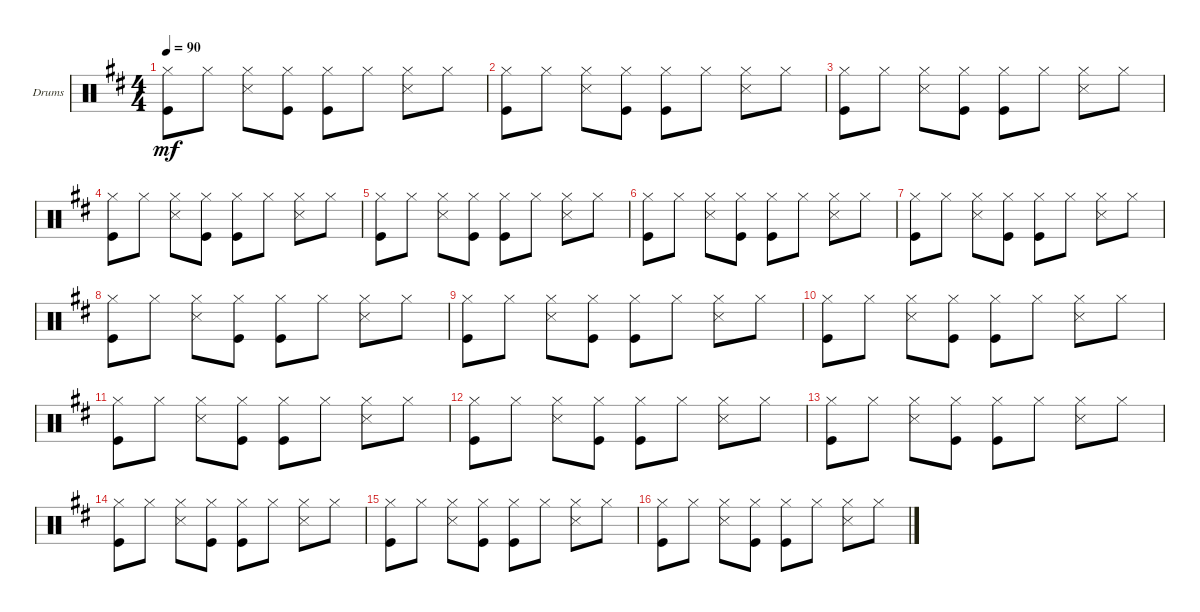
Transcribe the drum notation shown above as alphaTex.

\defaultSystemsLayout 4
\bracketExtendMode groupsimilarinstruments
\firstSystemTrackNameOrientation horizontal
\otherSystemsTrackNameOrientation horizontal
\track ("Drumkit" "Drums") {multiBarRest instrument percussion}
\staff {score}
\articulation defaults
\ts (4 4)
\tempo 90
\clef neutral
\scale
0.333333
\ks d
("Hi-Hat (closed)" "Kick (hit)").8{dy mf} "Hi-Hat (closed)".8 ("Hi-Hat (closed)" "Snare (side stick) 3").8 ("Hi-Hat (closed)" "Kick (hit)").8 ("Hi-Hat (closed)" "Kick (hit)").8 "Hi-Hat (closed)".8 ("Hi-Hat (closed)" "Snare (side stick) 3").8 "Hi-Hat (closed)".8 |
\scale
0.333333 ("Hi-Hat (closed)" "Kick (hit)").8 "Hi-Hat (closed)".8 ("Hi-Hat (closed)" "Snare (side stick) 3").8 ("Hi-Hat (closed)" "Kick (hit)").8 ("Hi-Hat (closed)" "Kick (hit)").8 "Hi-Hat (closed)".8 ("Hi-Hat (closed)" "Snare (side stick) 3").8 "Hi-Hat (closed)".8 |
\scale
0.333333 ("Hi-Hat (closed)" "Kick (hit)").8 "Hi-Hat (closed)".8 ("Hi-Hat (closed)" "Snare (side stick) 3").8 ("Hi-Hat (closed)" "Kick (hit)").8 ("Hi-Hat (closed)" "Kick (hit)").8 "Hi-Hat (closed)".8 ("Hi-Hat (closed)" "Snare (side stick) 3").8 "Hi-Hat (closed)".8 |
\scale
0.333333 ("Hi-Hat (closed)" "Kick (hit)").8 "Hi-Hat (closed)".8 ("Hi-Hat (closed)" "Snare (side stick) 3").8 ("Hi-Hat (closed)" "Kick (hit)").8 ("Hi-Hat (closed)" "Kick (hit)").8 "Hi-Hat (closed)".8 ("Hi-Hat (closed)" "Snare (side stick) 3").8 "Hi-Hat (closed)".8 |
\scale
0.333333 ("Hi-Hat (closed)" "Kick (hit)").8 "Hi-Hat (closed)".8 ("Hi-Hat (closed)" "Snare (side stick) 3").8 ("Hi-Hat (closed)" "Kick (hit)").8 ("Hi-Hat (closed)" "Kick (hit)").8 "Hi-Hat (closed)".8 ("Hi-Hat (closed)" "Snare (side stick) 3").8 "Hi-Hat (closed)".8 |
\scale
0.333333 ("Hi-Hat (closed)" "Kick (hit)").8 "Hi-Hat (closed)".8 ("Hi-Hat (closed)" "Snare (side stick) 3").8 ("Hi-Hat (closed)" "Kick (hit)").8 ("Hi-Hat (closed)" "Kick (hit)").8 "Hi-Hat (closed)".8 ("Hi-Hat (closed)" "Snare (side stick) 3").8 "Hi-Hat (closed)".8 |
\scale
0.333333 ("Hi-Hat (closed)" "Kick (hit)").8 "Hi-Hat (closed)".8 ("Hi-Hat (closed)" "Snare (side stick) 3").8 ("Hi-Hat (closed)" "Kick (hit)").8 ("Hi-Hat (closed)" "Kick (hit)").8 "Hi-Hat (closed)".8 ("Hi-Hat (closed)" "Snare (side stick) 3").8 "Hi-Hat (closed)".8 |
\scale
0.333333 ("Hi-Hat (closed)" "Kick (hit)").8 "Hi-Hat (closed)".8 ("Hi-Hat (closed)" "Snare (side stick) 3").8 ("Hi-Hat (closed)" "Kick (hit)").8 ("Hi-Hat (closed)" "Kick (hit)").8 "Hi-Hat (closed)".8 ("Hi-Hat (closed)" "Snare (side stick) 3").8 "Hi-Hat (closed)".8 |
\scale
0.333333 ("Hi-Hat (closed)" "Kick (hit)").8 "Hi-Hat (closed)".8 ("Hi-Hat (closed)" "Snare (side stick) 3").8 ("Hi-Hat (closed)" "Kick (hit)").8 ("Hi-Hat (closed)" "Kick (hit)").8 "Hi-Hat (closed)".8 ("Hi-Hat (closed)" "Snare (side stick) 3").8 "Hi-Hat (closed)".8 |
\scale
0.333333 ("Hi-Hat (closed)" "Kick (hit)").8 "Hi-Hat (closed)".8 ("Hi-Hat (closed)" "Snare (side stick) 3").8 ("Hi-Hat (closed)" "Kick (hit)").8 ("Hi-Hat (closed)" "Kick (hit)").8 "Hi-Hat (closed)".8 ("Hi-Hat (closed)" "Snare (side stick) 3").8 "Hi-Hat (closed)".8 |
\scale
0.333333 ("Hi-Hat (closed)" "Kick (hit)").8 "Hi-Hat (closed)".8 ("Hi-Hat (closed)" "Snare (side stick) 3").8 ("Hi-Hat (closed)" "Kick (hit)").8 ("Hi-Hat (closed)" "Kick (hit)").8 "Hi-Hat (closed)".8 ("Hi-Hat (closed)" "Snare (side stick) 3").8 "Hi-Hat (closed)".8 |
\scale
0.333333 ("Hi-Hat (closed)" "Kick (hit)").8 "Hi-Hat (closed)".8 ("Hi-Hat (closed)" "Snare (side stick) 3").8 ("Hi-Hat (closed)" "Kick (hit)").8 ("Hi-Hat (closed)" "Kick (hit)").8 "Hi-Hat (closed)".8 ("Hi-Hat (closed)" "Snare (side stick) 3").8 "Hi-Hat (closed)".8 |
\scale
0.333333 ("Hi-Hat (closed)" "Kick (hit)").8 "Hi-Hat (closed)".8 ("Hi-Hat (closed)" "Snare (side stick) 3").8 ("Hi-Hat (closed)" "Kick (hit)").8 ("Hi-Hat (closed)" "Kick (hit)").8 "Hi-Hat (closed)".8 ("Hi-Hat (closed)" "Snare (side stick) 3").8 "Hi-Hat (closed)".8 |
\scale
0.333333 ("Hi-Hat (closed)" "Kick (hit)").8 "Hi-Hat (closed)".8 ("Hi-Hat (closed)" "Snare (side stick) 3").8 ("Hi-Hat (closed)" "Kick (hit)").8 ("Hi-Hat (closed)" "Kick (hit)").8 "Hi-Hat (closed)".8 ("Hi-Hat (closed)" "Snare (side stick) 3").8 "Hi-Hat (closed)".8 |
\scale
0.333333 ("Hi-Hat (closed)" "Kick (hit)").8 "Hi-Hat (closed)".8 ("Hi-Hat (closed)" "Snare (side stick) 3").8 ("Hi-Hat (closed)" "Kick (hit)").8 ("Hi-Hat (closed)" "Kick (hit)").8 "Hi-Hat (closed)".8 ("Hi-Hat (closed)" "Snare (side stick) 3").8 "Hi-Hat (closed)".8 |
\scale
0.333333 ("Hi-Hat (closed)" "Kick (hit)").8 "Hi-Hat (closed)".8 ("Hi-Hat (closed)" "Snare (side stick) 3").8 ("Hi-Hat (closed)" "Kick (hit)").8 ("Hi-Hat (closed)" "Kick (hit)").8 "Hi-Hat (closed)".8 ("Hi-Hat (closed)" "Snare (side stick) 3").8 "Hi-Hat (closed)".8
